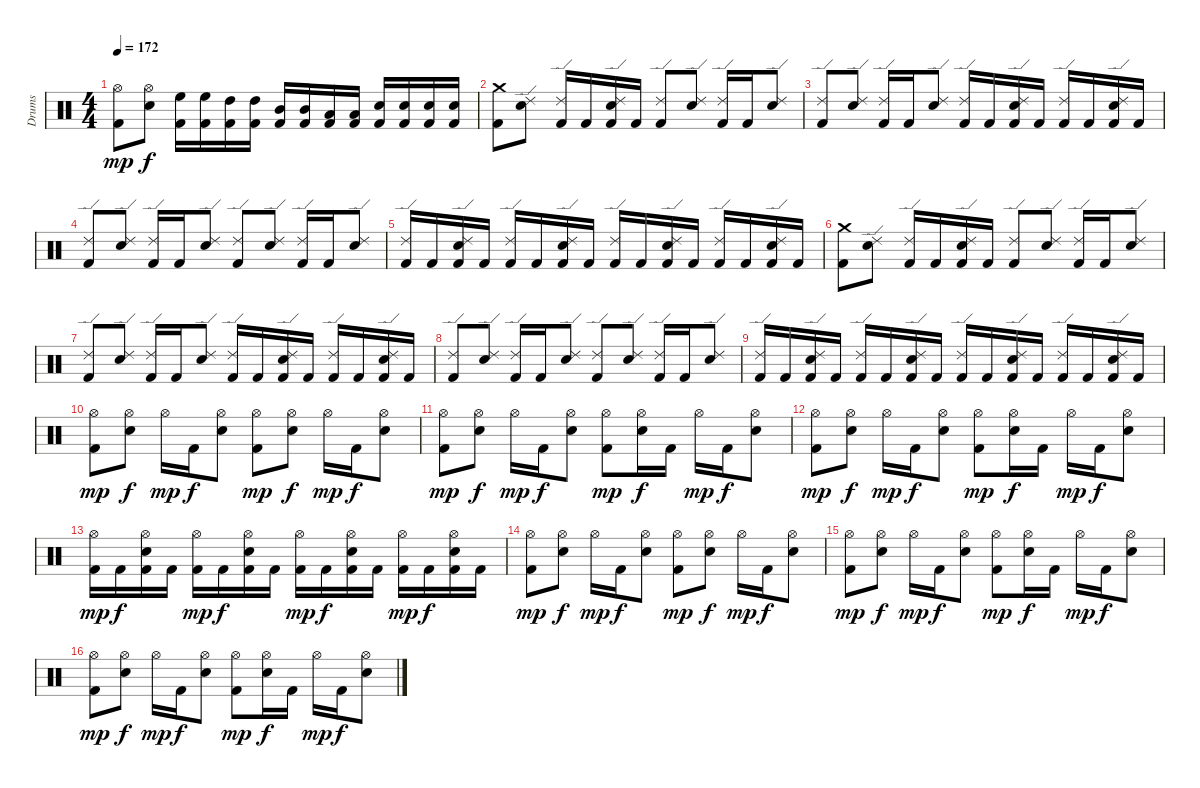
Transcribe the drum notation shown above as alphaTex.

\track ("Drums" "Drums") {instrument percussion}
\staff {score}
\articulation defaults
\ts (4 4)
\tempo 172
\clef neutral
\ks c
("Kick (hit) 2" "Hi-Hat (open)").8{dy mp} ("Snare (hit) 2" "Hi-Hat (open)").8{dy f} ("Kick (hit) 2" "High Floor Tom (hit)").16 ("Kick (hit) 2" "High Floor Tom (hit)").16 ("Kick (hit) 2" "High Tom (hit)").16 ("Kick (hit) 2" "High Tom (hit)").16 ("Kick (hit) 2" "Mid Tom (hit)").16 ("Kick (hit) 2" "Mid Tom (hit)").16 ("Kick (hit) 2" "Low Tom (hit)").16 ("Kick (hit) 2" "Low Tom (hit)").16 ("Kick (hit) 2" "Snare (hit) 2").16 ("Kick (hit) 2" "Snare (hit) 2").16 ("Kick (hit) 2" "Snare (hit) 2").16 ("Kick (hit) 2" "Snare (hit) 2").16 |
("Kick (hit) 2" "Crash medium (hit)").8 ("Snare (hit) 2" "Ride (edge) 2").8 ("Kick (hit) 2" "Ride (edge) 2").16 "Kick (hit) 2".16 ("Kick (hit) 2" "Snare (hit) 2" "Ride (edge) 2").16 "Kick (hit) 2".16 ("Kick (hit) 2" "Ride (edge) 2").8 ("Snare (hit) 2" "Ride (edge) 2").8 ("Kick (hit) 2" "Ride (edge) 2").16 "Kick (hit) 2".16 ("Snare (hit) 2" "Ride (edge) 2").8 |
("Kick (hit) 2" "Ride (edge) 2").8 ("Snare (hit) 2" "Ride (edge) 2").8 ("Kick (hit) 2" "Ride (edge) 2").16 "Kick (hit) 2".16 ("Snare (hit) 2" "Ride (edge) 2").8 ("Kick (hit) 2" "Ride (edge) 2").16 "Kick (hit) 2".16 ("Kick (hit) 2" "Snare (hit) 2" "Ride (edge) 2").16 "Kick (hit) 2".16 ("Kick (hit) 2" "Ride (edge) 2").16 "Kick (hit) 2".16 ("Kick (hit) 2" "Snare (hit) 2" "Ride (edge) 2").16 "Kick (hit) 2".16 |
("Kick (hit) 2" "Ride (edge) 2").8 ("Snare (hit) 2" "Ride (edge) 2").8 ("Kick (hit) 2" "Ride (edge) 2").16 "Kick (hit) 2".16 ("Snare (hit) 2" "Ride (edge) 2").8 ("Kick (hit) 2" "Ride (edge) 2").8 ("Snare (hit) 2" "Ride (edge) 2").8 ("Kick (hit) 2" "Ride (edge) 2").16 "Kick (hit) 2".16 ("Snare (hit) 2" "Ride (edge) 2").8 |
("Kick (hit) 2" "Ride (edge) 2").16 "Kick (hit) 2".16 ("Kick (hit) 2" "Snare (hit) 2" "Ride (edge) 2").16 "Kick (hit) 2".16 ("Kick (hit) 2" "Ride (edge) 2").16 "Kick (hit) 2".16 ("Kick (hit) 2" "Snare (hit) 2" "Ride (edge) 2").16 "Kick (hit) 2".16 ("Kick (hit) 2" "Ride (edge) 2").16 "Kick (hit) 2".16 ("Kick (hit) 2" "Snare (hit) 2" "Ride (edge) 2").16 "Kick (hit) 2".16 ("Kick (hit) 2" "Ride (edge) 2").16 "Kick (hit) 2".16 ("Kick (hit) 2" "Snare (hit) 2" "Ride (edge) 2").16 "Kick (hit) 2".16 |
\section ("" "")
("Kick (hit) 2" "Crash medium (hit)").8 ("Snare (hit) 2" "Ride (edge) 2").8 ("Kick (hit) 2" "Ride (edge) 2").16 "Kick (hit) 2".16 ("Kick (hit) 2" "Snare (hit) 2" "Ride (edge) 2").16 "Kick (hit) 2".16 ("Kick (hit) 2" "Ride (edge) 2").8 ("Snare (hit) 2" "Ride (edge) 2").8 ("Kick (hit) 2" "Ride (edge) 2").16 "Kick (hit) 2".16 ("Snare (hit) 2" "Ride (edge) 2").8 |
("Kick (hit) 2" "Ride (edge) 2").8 ("Snare (hit) 2" "Ride (edge) 2").8 ("Kick (hit) 2" "Ride (edge) 2").16 "Kick (hit) 2".16 ("Snare (hit) 2" "Ride (edge) 2").8 ("Kick (hit) 2" "Ride (edge) 2").16 "Kick (hit) 2".16 ("Kick (hit) 2" "Snare (hit) 2" "Ride (edge) 2").16 "Kick (hit) 2".16 ("Kick (hit) 2" "Ride (edge) 2").16 "Kick (hit) 2".16 ("Kick (hit) 2" "Snare (hit) 2" "Ride (edge) 2").16 "Kick (hit) 2".16 |
("Kick (hit) 2" "Ride (edge) 2").8 ("Snare (hit) 2" "Ride (edge) 2").8 ("Kick (hit) 2" "Ride (edge) 2").16 "Kick (hit) 2".16 ("Snare (hit) 2" "Ride (edge) 2").8 ("Kick (hit) 2" "Ride (edge) 2").8 ("Snare (hit) 2" "Ride (edge) 2").8 ("Kick (hit) 2" "Ride (edge) 2").16 "Kick (hit) 2".16 ("Snare (hit) 2" "Ride (edge) 2").8 |
("Kick (hit) 2" "Ride (edge) 2").16 "Kick (hit) 2".16 ("Kick (hit) 2" "Snare (hit) 2" "Ride (edge) 2").16 "Kick (hit) 2".16 ("Kick (hit) 2" "Ride (edge) 2").16 "Kick (hit) 2".16 ("Kick (hit) 2" "Snare (hit) 2" "Ride (edge) 2").16 "Kick (hit) 2".16 ("Kick (hit) 2" "Ride (edge) 2").16 "Kick (hit) 2".16 ("Kick (hit) 2" "Snare (hit) 2" "Ride (edge) 2").16 "Kick (hit) 2".16 ("Kick (hit) 2" "Ride (edge) 2").16 "Kick (hit) 2".16 ("Kick (hit) 2" "Snare (hit) 2" "Ride (edge) 2").16 "Kick (hit) 2".16 |
\section ("" "")
("Kick (hit) 2" "Hi-Hat (open)").8{dy mp} ("Snare (hit) 2" "Hi-Hat (open)").8{dy f} "Hi-Hat (open)".16{dy mp} "Kick (hit) 2".16{dy f} ("Snare (hit) 2" "Hi-Hat (open)").8 ("Kick (hit) 2" "Hi-Hat (open)").8{dy mp} ("Snare (hit) 2" "Hi-Hat (open)").8{dy f} "Hi-Hat (open)".16{dy mp} "Kick (hit) 2".16{dy f} ("Snare (hit) 2" "Hi-Hat (open)").8 |
("Kick (hit) 2" "Hi-Hat (open)").8{dy mp} ("Snare (hit) 2" "Hi-Hat (open)").8{dy f} "Hi-Hat (open)".16{dy mp} "Kick (hit) 2".16{dy f} ("Snare (hit) 2" "Hi-Hat (open)").8 ("Kick (hit) 2" "Hi-Hat (open)").8{dy mp} ("Snare (hit) 2" "Hi-Hat (open)").16{dy f} "Kick (hit) 2".16 "Hi-Hat (open)".16{dy mp} "Kick (hit) 2".16{dy f} ("Snare (hit) 2" "Hi-Hat (open)").8 |
("Kick (hit) 2" "Hi-Hat (open)").8{dy mp} ("Snare (hit) 2" "Hi-Hat (open)").8{dy f} "Hi-Hat (open)".16{dy mp} "Kick (hit) 2".16{dy f} ("Snare (hit) 2" "Hi-Hat (open)").8 ("Kick (hit) 2" "Hi-Hat (open)").8{dy mp} ("Snare (hit) 2" "Hi-Hat (open)").16{dy f} "Kick (hit) 2".16 "Hi-Hat (open)".16{dy mp} "Kick (hit) 2".16{dy f} ("Snare (hit) 2" "Hi-Hat (open)").8 |
("Kick (hit) 2" "Hi-Hat (open)").16{dy mp} "Kick (hit) 2".16{dy f} ("Kick (hit) 2" "Snare (hit) 2" "Hi-Hat (open)").16 "Kick (hit) 2".16 ("Kick (hit) 2" "Hi-Hat (open)").16{dy mp} "Kick (hit) 2".16{dy f} ("Kick (hit) 2" "Snare (hit) 2" "Hi-Hat (open)").16 "Kick (hit) 2".16 ("Kick (hit) 2" "Hi-Hat (open)").16{dy mp} "Kick (hit) 2".16{dy f} ("Kick (hit) 2" "Snare (hit) 2" "Hi-Hat (open)").16 "Kick (hit) 2".16 ("Kick (hit) 2" "Hi-Hat (open)").16{dy mp} "Kick (hit) 2".16{dy f} ("Kick (hit) 2" "Snare (hit) 2" "Hi-Hat (open)").16 "Kick (hit) 2".16 |
("Kick (hit) 2" "Hi-Hat (open)").8{dy mp} ("Snare (hit) 2" "Hi-Hat (open)").8{dy f} "Hi-Hat (open)".16{dy mp} "Kick (hit) 2".16{dy f} ("Snare (hit) 2" "Hi-Hat (open)").8 ("Kick (hit) 2" "Hi-Hat (open)").8{dy mp} ("Snare (hit) 2" "Hi-Hat (open)").8{dy f} "Hi-Hat (open)".16{dy mp} "Kick (hit) 2".16{dy f} ("Snare (hit) 2" "Hi-Hat (open)").8 |
("Kick (hit) 2" "Hi-Hat (open)").8{dy mp} ("Snare (hit) 2" "Hi-Hat (open)").8{dy f} "Hi-Hat (open)".16{dy mp} "Kick (hit) 2".16{dy f} ("Snare (hit) 2" "Hi-Hat (open)").8 ("Kick (hit) 2" "Hi-Hat (open)").8{dy mp} ("Snare (hit) 2" "Hi-Hat (open)").16{dy f} "Kick (hit) 2".16 "Hi-Hat (open)".16{dy mp} "Kick (hit) 2".16{dy f} ("Snare (hit) 2" "Hi-Hat (open)").8 |
("Kick (hit) 2" "Hi-Hat (open)").8{dy mp} ("Snare (hit) 2" "Hi-Hat (open)").8{dy f} "Hi-Hat (open)".16{dy mp} "Kick (hit) 2".16{dy f} ("Snare (hit) 2" "Hi-Hat (open)").8 ("Kick (hit) 2" "Hi-Hat (open)").8{dy mp} ("Snare (hit) 2" "Hi-Hat (open)").16{dy f} "Kick (hit) 2".16 "Hi-Hat (open)".16{dy mp} "Kick (hit) 2".16{dy f} ("Snare (hit) 2" "Hi-Hat (open)").8
